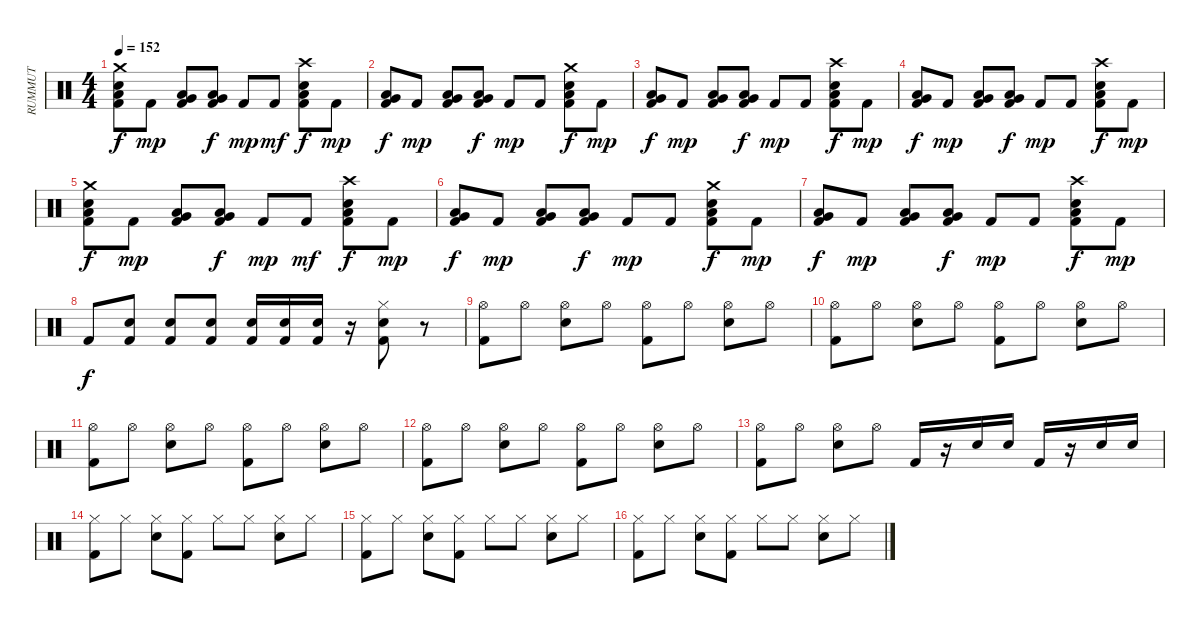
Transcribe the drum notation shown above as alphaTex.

\track ("RUMMUT" "RUMMUT") {instrument percussion}
\staff {score}
\articulation defaults
\ts (4 4)
\tempo 152
\clef neutral
\ks c
("Crash medium (hit)" "Electric Snare (hit)" "Low Tom (hit)" "Kick (hit) 2").8{dy f} "Kick (hit) 2".8{dy mp} ("Very Low Tom (hit)" "Low Tom (hit)" "Kick (hit) 2").8 ("Very Low Tom (hit)" "Low Tom (hit)" "Kick (hit) 2").8{dy f} "Kick (hit) 2".8{dy mp} "Kick (hit) 2".8{dy mf} ("Crash high (hit)" "Low Tom (hit)" "Electric Snare (hit)" "Kick (hit) 2").8{dy f} "Kick (hit) 2".8{dy mp} |
("Very Low Tom (hit)" "Low Tom (hit)" "Kick (hit) 2").8{dy f} "Kick (hit) 2".8{dy mp} ("Very Low Tom (hit)" "Low Tom (hit)" "Kick (hit) 2").8 ("Very Low Tom (hit)" "Low Tom (hit)" "Kick (hit) 2").8{dy f} "Kick (hit) 2".8{dy mp} "Kick (hit) 2".8 ("Crash medium (hit)" "Low Tom (hit)" "Electric Snare (hit)" "Kick (hit) 2").8{dy f} "Kick (hit) 2".8{dy mp} |
("Very Low Tom (hit)" "Low Tom (hit)" "Kick (hit) 2").8{dy f} "Kick (hit) 2".8{dy mp} ("Very Low Tom (hit)" "Low Tom (hit)" "Kick (hit) 2").8 ("Very Low Tom (hit)" "Low Tom (hit)" "Kick (hit) 2").8{dy f} "Kick (hit) 2".8{dy mp} "Kick (hit) 2".8 ("Crash high (hit)" "Low Tom (hit)" "Electric Snare (hit)" "Kick (hit) 2").8{dy f} "Kick (hit) 2".8{dy mp} |
("Very Low Tom (hit)" "Low Tom (hit)" "Kick (hit) 2").8{dy f} "Kick (hit) 2".8{dy mp} ("Very Low Tom (hit)" "Low Tom (hit)" "Kick (hit) 2").8 ("Very Low Tom (hit)" "Low Tom (hit)" "Kick (hit) 2").8{dy f} "Kick (hit) 2".8{dy mp} "Kick (hit) 2".8 ("Crash high (hit)" "Low Tom (hit)" "Electric Snare (hit)" "Kick (hit) 2").8{dy f} "Kick (hit) 2".8{dy mp} |
("Crash medium (hit)" "Electric Snare (hit)" "Low Tom (hit)" "Kick (hit) 2").8{dy f} "Kick (hit) 2".8{dy mp} ("Very Low Tom (hit)" "Low Tom (hit)" "Kick (hit) 2").8 ("Very Low Tom (hit)" "Low Tom (hit)" "Kick (hit) 2").8{dy f} "Kick (hit) 2".8{dy mp} "Kick (hit) 2".8{dy mf} ("Crash high (hit)" "Low Tom (hit)" "Electric Snare (hit)" "Kick (hit) 2").8{dy f} "Kick (hit) 2".8{dy mp} |
("Very Low Tom (hit)" "Low Tom (hit)" "Kick (hit) 2").8{dy f} "Kick (hit) 2".8{dy mp} ("Very Low Tom (hit)" "Low Tom (hit)" "Kick (hit) 2").8 ("Very Low Tom (hit)" "Low Tom (hit)" "Kick (hit) 2").8{dy f} "Kick (hit) 2".8{dy mp} "Kick (hit) 2".8 ("Crash medium (hit)" "Low Tom (hit)" "Electric Snare (hit)" "Kick (hit) 2").8{dy f} "Kick (hit) 2".8{dy mp} |
("Very Low Tom (hit)" "Low Tom (hit)" "Kick (hit) 2").8{dy f} "Kick (hit) 2".8{dy mp} ("Very Low Tom (hit)" "Low Tom (hit)" "Kick (hit) 2").8 ("Very Low Tom (hit)" "Low Tom (hit)" "Kick (hit) 2").8{dy f} "Kick (hit) 2".8{dy mp} "Kick (hit) 2".8 ("Crash high (hit)" "Low Tom (hit)" "Electric Snare (hit)" "Kick (hit) 2").8{dy f} "Kick (hit) 2".8{dy mp} |
"Kick (hit) 2".8{dy f} ("Electric Snare (hit)" "Kick (hit) 2").8 ("Electric Snare (hit)" "Kick (hit) 2").8 ("Electric Snare (hit)" "Kick (hit) 2").8 ("Electric Snare (hit)" "Kick (hit) 2").16 ("Electric Snare (hit)" "Kick (hit) 2").16 ("Electric Snare (hit)" "Kick (hit) 2").16 r.16 ("Hi-Hat (closed)" "Electric Snare (hit)" "Kick (hit) 2").8 r.8 |
("Hi-Hat (open)" "Kick (hit) 2").8 "Hi-Hat (open)".8 ("Hi-Hat (open)" "Electric Snare (hit)").8 "Hi-Hat (open)".8 ("Hi-Hat (open)" "Kick (hit) 2").8 "Hi-Hat (open)".8 ("Hi-Hat (open)" "Electric Snare (hit)").8 "Hi-Hat (open)".8 |
("Hi-Hat (open)" "Kick (hit) 2").8 "Hi-Hat (open)".8 ("Hi-Hat (open)" "Electric Snare (hit)").8 "Hi-Hat (open)".8 ("Hi-Hat (open)" "Kick (hit) 2").8 "Hi-Hat (open)".8 ("Hi-Hat (open)" "Electric Snare (hit)").8 "Hi-Hat (open)".8 |
("Hi-Hat (open)" "Kick (hit) 2").8 "Hi-Hat (open)".8 ("Hi-Hat (open)" "Electric Snare (hit)").8 "Hi-Hat (open)".8 ("Hi-Hat (open)" "Kick (hit) 2").8 "Hi-Hat (open)".8 ("Hi-Hat (open)" "Electric Snare (hit)").8 "Hi-Hat (open)".8 |
("Hi-Hat (open)" "Kick (hit) 2").8 "Hi-Hat (open)".8 ("Hi-Hat (open)" "Electric Snare (hit)").8 "Hi-Hat (open)".8 ("Hi-Hat (open)" "Kick (hit) 2").8 "Hi-Hat (open)".8 ("Hi-Hat (open)" "Electric Snare (hit)").8 "Hi-Hat (open)".8 |
("Hi-Hat (open)" "Kick (hit) 2").8 "Hi-Hat (open)".8 ("Hi-Hat (open)" "Electric Snare (hit)").8 "Hi-Hat (open)".8 "Kick (hit) 2".16 r.16 "Electric Snare (hit)".16 "Electric Snare (hit)".16 "Kick (hit) 2".16 r.16 "Electric Snare (hit)".16 "Electric Snare (hit)".16 |
("Hi-Hat (closed)" "Kick (hit) 2").8 "Hi-Hat (closed)".8 ("Hi-Hat (closed)" "Electric Snare (hit)").8 ("Hi-Hat (closed)" "Kick (hit) 2").8 "Hi-Hat (closed)".8 "Hi-Hat (closed)".8 ("Hi-Hat (closed)" "Electric Snare (hit)").8 "Hi-Hat (closed)".8 |
("Hi-Hat (closed)" "Kick (hit) 2").8 "Hi-Hat (closed)".8 ("Hi-Hat (closed)" "Electric Snare (hit)").8 ("Hi-Hat (closed)" "Kick (hit) 2").8 "Hi-Hat (closed)".8 "Hi-Hat (closed)".8 ("Hi-Hat (closed)" "Electric Snare (hit)").8 "Hi-Hat (closed)".8 |
("Hi-Hat (closed)" "Kick (hit) 2").8 "Hi-Hat (closed)".8 ("Hi-Hat (closed)" "Electric Snare (hit)").8 ("Hi-Hat (closed)" "Kick (hit) 2").8 "Hi-Hat (closed)".8 "Hi-Hat (closed)".8 ("Hi-Hat (closed)" "Electric Snare (hit)").8 "Hi-Hat (closed)".8
